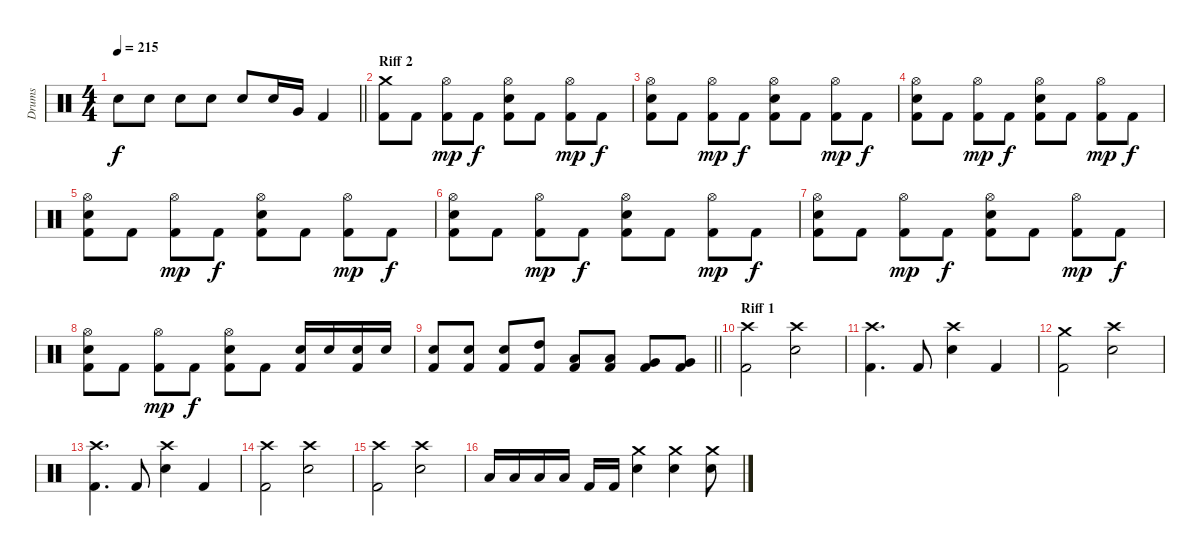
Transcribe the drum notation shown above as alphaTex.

\track ("Drums" "Drums") {instrument percussion}
\staff {score}
\articulation defaults
\ts (4 4)
\tempo 215
\clef neutral
\barLineRight lightlight
\ks c "Electric Snare (hit)".8{dy f} "Electric Snare (hit)".8 "Electric Snare (hit)".8 "Electric Snare (hit)".8 "Electric Snare (hit)".8 "Electric Snare (hit)".16 "Very Low Tom (hit)".16 "Kick (hit) 2".4
|
\section ("" "Riff 2")
("Crash medium (hit)" "Kick (hit) 2").8 "Kick (hit) 2".8 ("Hi-Hat (open)" "Kick (hit) 2").8{dy mp} "Kick (hit) 2".8{dy f} ("Hi-Hat (open)" "Kick (hit) 2" "Electric Snare (hit)").8 "Kick (hit) 2".8 ("Hi-Hat (open)" "Kick (hit) 2").8{dy mp} "Kick (hit) 2".8{dy f} |
("Hi-Hat (open)" "Kick (hit) 2" "Electric Snare (hit)").8 "Kick (hit) 2".8 ("Hi-Hat (open)" "Kick (hit) 2").8{dy mp} "Kick (hit) 2".8{dy f} ("Hi-Hat (open)" "Kick (hit) 2" "Electric Snare (hit)").8 "Kick (hit) 2".8 ("Hi-Hat (open)" "Kick (hit) 2").8{dy mp} "Kick (hit) 2".8{dy f} |
("Hi-Hat (open)" "Kick (hit) 2" "Electric Snare (hit)").8 "Kick (hit) 2".8 ("Hi-Hat (open)" "Kick (hit) 2").8{dy mp} "Kick (hit) 2".8{dy f} ("Hi-Hat (open)" "Kick (hit) 2" "Electric Snare (hit)").8 "Kick (hit) 2".8 ("Hi-Hat (open)" "Kick (hit) 2").8{dy mp} "Kick (hit) 2".8{dy f} |
("Hi-Hat (open)" "Kick (hit) 2" "Electric Snare (hit)").8 "Kick (hit) 2".8 ("Hi-Hat (open)" "Kick (hit) 2").8{dy mp} "Kick (hit) 2".8{dy f} ("Hi-Hat (open)" "Kick (hit) 2" "Electric Snare (hit)").8 "Kick (hit) 2".8 ("Hi-Hat (open)" "Kick (hit) 2").8{dy mp} "Kick (hit) 2".8{dy f} |
("Hi-Hat (open)" "Kick (hit) 2" "Electric Snare (hit)").8 "Kick (hit) 2".8 ("Hi-Hat (open)" "Kick (hit) 2").8{dy mp} "Kick (hit) 2".8{dy f} ("Hi-Hat (open)" "Kick (hit) 2" "Electric Snare (hit)").8 "Kick (hit) 2".8 ("Hi-Hat (open)" "Kick (hit) 2").8{dy mp} "Kick (hit) 2".8{dy f} |
("Hi-Hat (open)" "Kick (hit) 2" "Electric Snare (hit)").8 "Kick (hit) 2".8 ("Hi-Hat (open)" "Kick (hit) 2").8{dy mp} "Kick (hit) 2".8{dy f} ("Hi-Hat (open)" "Kick (hit) 2" "Electric Snare (hit)").8 "Kick (hit) 2".8 ("Hi-Hat (open)" "Kick (hit) 2").8{dy mp} "Kick (hit) 2".8{dy f} |
("Hi-Hat (open)" "Kick (hit) 2" "Electric Snare (hit)").8 "Kick (hit) 2".8 ("Hi-Hat (open)" "Kick (hit) 2").8{dy mp} "Kick (hit) 2".8{dy f} ("Hi-Hat (open)" "Kick (hit) 2" "Electric Snare (hit)").8 "Kick (hit) 2".8 ("Electric Snare (hit)" "Kick (hit) 2").16 "Electric Snare (hit)".16 ("Electric Snare (hit)" "Kick (hit) 2").16 "Electric Snare (hit)".16 |
\barLineRight lightlight
("Electric Snare (hit)" "Kick (hit) 2").8 ("Electric Snare (hit)" "Kick (hit) 2").8 ("Electric Snare (hit)" "Kick (hit) 2").8 ("High Tom (hit)" "Kick (hit) 2").8 ("Low Tom (hit)" "Kick (hit) 2").8 ("Low Tom (hit)" "Kick (hit) 2").8 ("Very Low Tom (hit)" "Kick (hit) 2").8 ("Very Low Tom (hit)" "Kick (hit) 2").8 |
\section ("" "Riff 1")
("Kick (hit) 2" "Crash high (hit)").2 ("Electric Snare (hit)" "Crash high (hit)").2 |
("Kick (hit) 2" "Crash high (hit)").4{d} "Kick (hit) 2".8 ("Electric Snare (hit)" "Crash high (hit)").4 "Kick (hit) 2".4 |
("Kick (hit) 2" "Crash medium (hit)").2 ("Electric Snare (hit)" "Crash high (hit)").2 |
("Kick (hit) 2" "Crash high (hit)").4{d} "Kick (hit) 2".8 ("Electric Snare (hit)" "Crash high (hit)").4 "Kick (hit) 2".4 |
("Kick (hit) 2" "Crash high (hit)").2 ("Electric Snare (hit)" "Crash high (hit)").2 |
("Kick (hit) 2" "Crash high (hit)").2 ("Electric Snare (hit)" "Crash high (hit)").2 |
"Low Tom (hit)".16 "Low Tom (hit)".16 "Low Tom (hit)".16 "Low Tom (hit)".16 "Kick (hit) 2".16 "Kick (hit) 2".16 ("Electric Snare (hit)" "Crash medium (hit)").4 ("Electric Snare (hit)" "Crash medium (hit)").4 ("Electric Snare (hit)" "Crash medium (hit)").8
